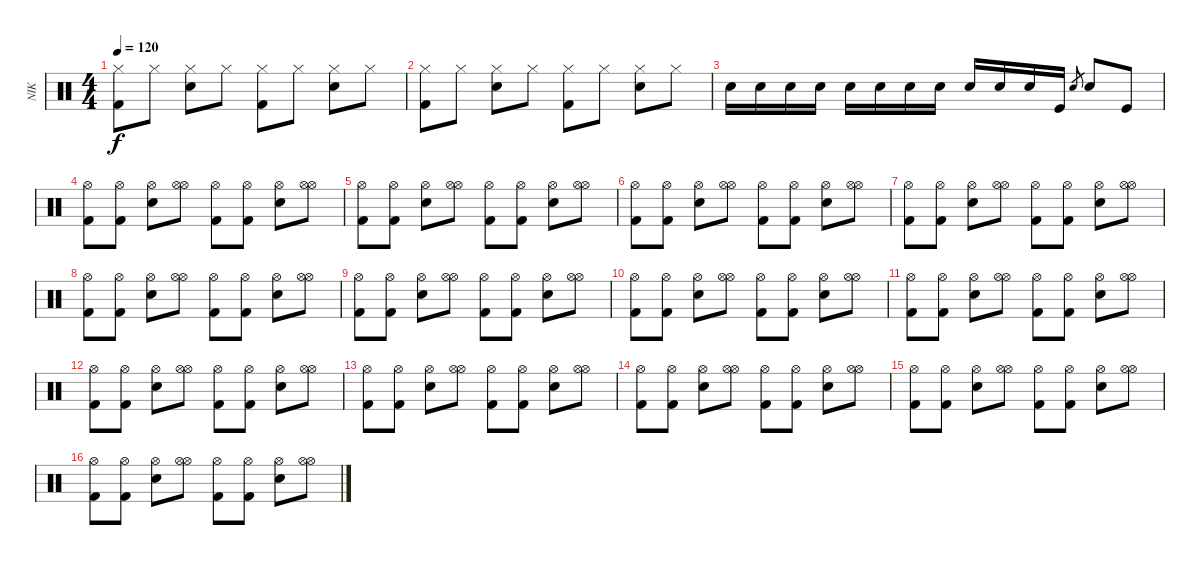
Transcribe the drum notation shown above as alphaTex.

\track ("NIK" "NIK") {instrument percussion}
\staff {score}
\articulation defaults
\ts (4 4)
\tempo 120
\clef neutral
\ks c
("Hi-Hat (closed)" "Kick (hit) 2").8{dy f} "Hi-Hat (closed)".8 ("Hi-Hat (closed)" "Electric Snare (hit)").8 "Hi-Hat (closed)".8 ("Hi-Hat (closed)" "Kick (hit) 2").8 "Hi-Hat (closed)".8 ("Hi-Hat (closed)" "Electric Snare (hit)").8 "Hi-Hat (closed)".8 |
("Hi-Hat (closed)" "Kick (hit) 2").8 "Hi-Hat (closed)".8 ("Hi-Hat (closed)" "Electric Snare (hit)").8 "Hi-Hat (closed)".8 ("Hi-Hat (closed)" "Kick (hit) 2").8 "Hi-Hat (closed)".8 ("Hi-Hat (closed)" "Electric Snare (hit)").8 "Hi-Hat (closed)".8 |
"Snare (hit) 2".16 "Snare (hit) 2".16 "Snare (hit) 2".16 "Snare (hit) 2".16 "Snare (hit) 2".16 "Snare (hit) 2".16 "Snare (hit) 2".16 "Snare (hit) 2".16 "Snare (hit) 2".16 "Snare (hit) 2".16 "Snare (hit) 2".16 "Kick (hit)".16 "Snare (hit) 2".8{gr} "Snare (hit) 2".8 "Kick (hit)".8 |
("Kick (hit) 2" "Hi-Hat (open)").8 ("Kick (hit) 2" "Hi-Hat (open)").8 ("Electric Snare (hit)" "Hi-Hat (open)").8 ("Hi-Hat (open)" "Hi-Hat (open)").8 ("Kick (hit) 2" "Hi-Hat (open)").8 ("Kick (hit) 2" "Hi-Hat (open)").8 ("Electric Snare (hit)" "Hi-Hat (open)").8 ("Hi-Hat (open)" "Hi-Hat (open)").8 |
("Kick (hit) 2" "Hi-Hat (open)").8 ("Kick (hit) 2" "Hi-Hat (open)").8 ("Electric Snare (hit)" "Hi-Hat (open)").8 ("Hi-Hat (open)" "Hi-Hat (open)").8 ("Kick (hit) 2" "Hi-Hat (open)").8 ("Kick (hit) 2" "Hi-Hat (open)").8 ("Electric Snare (hit)" "Hi-Hat (open)").8 ("Hi-Hat (open)" "Hi-Hat (open)").8 |
("Kick (hit) 2" "Hi-Hat (open)").8 ("Kick (hit) 2" "Hi-Hat (open)").8 ("Electric Snare (hit)" "Hi-Hat (open)").8 ("Hi-Hat (open)" "Hi-Hat (open)").8 ("Kick (hit) 2" "Hi-Hat (open)").8 ("Kick (hit) 2" "Hi-Hat (open)").8 ("Electric Snare (hit)" "Hi-Hat (open)").8 ("Hi-Hat (open)" "Hi-Hat (open)").8 |
("Kick (hit) 2" "Hi-Hat (open)").8 ("Kick (hit) 2" "Hi-Hat (open)").8 ("Electric Snare (hit)" "Hi-Hat (open)").8 ("Hi-Hat (open)" "Hi-Hat (open)").8 ("Kick (hit) 2" "Hi-Hat (open)").8 ("Kick (hit) 2" "Hi-Hat (open)").8 ("Electric Snare (hit)" "Hi-Hat (open)").8 ("Hi-Hat (open)" "Hi-Hat (open)").8 |
("Kick (hit) 2" "Hi-Hat (open)").8 ("Kick (hit) 2" "Hi-Hat (open)").8 ("Electric Snare (hit)" "Hi-Hat (open)").8 ("Hi-Hat (open)" "Hi-Hat (open)").8 ("Kick (hit) 2" "Hi-Hat (open)").8 ("Kick (hit) 2" "Hi-Hat (open)").8 ("Electric Snare (hit)" "Hi-Hat (open)").8 ("Hi-Hat (open)" "Hi-Hat (open)").8 |
("Kick (hit) 2" "Hi-Hat (open)").8 ("Kick (hit) 2" "Hi-Hat (open)").8 ("Electric Snare (hit)" "Hi-Hat (open)").8 ("Hi-Hat (open)" "Hi-Hat (open)").8 ("Kick (hit) 2" "Hi-Hat (open)").8 ("Kick (hit) 2" "Hi-Hat (open)").8 ("Electric Snare (hit)" "Hi-Hat (open)").8 ("Hi-Hat (open)" "Hi-Hat (open)").8 |
("Kick (hit) 2" "Hi-Hat (open)").8 ("Kick (hit) 2" "Hi-Hat (open)").8 ("Electric Snare (hit)" "Hi-Hat (open)").8 ("Hi-Hat (open)" "Hi-Hat (open)").8 ("Kick (hit) 2" "Hi-Hat (open)").8 ("Kick (hit) 2" "Hi-Hat (open)").8 ("Electric Snare (hit)" "Hi-Hat (open)").8 ("Hi-Hat (open)" "Hi-Hat (open)").8 |
("Kick (hit) 2" "Hi-Hat (open)").8 ("Kick (hit) 2" "Hi-Hat (open)").8 ("Electric Snare (hit)" "Hi-Hat (open)").8 ("Hi-Hat (open)" "Hi-Hat (open)").8 ("Kick (hit) 2" "Hi-Hat (open)").8 ("Kick (hit) 2" "Hi-Hat (open)").8 ("Electric Snare (hit)" "Hi-Hat (open)").8 ("Hi-Hat (open)" "Hi-Hat (open)").8 |
("Kick (hit) 2" "Hi-Hat (open)").8 ("Kick (hit) 2" "Hi-Hat (open)").8 ("Electric Snare (hit)" "Hi-Hat (open)").8 ("Hi-Hat (open)" "Hi-Hat (open)").8 ("Kick (hit) 2" "Hi-Hat (open)").8 ("Kick (hit) 2" "Hi-Hat (open)").8 ("Electric Snare (hit)" "Hi-Hat (open)").8 ("Hi-Hat (open)" "Hi-Hat (open)").8 |
("Kick (hit) 2" "Hi-Hat (open)").8 ("Kick (hit) 2" "Hi-Hat (open)").8 ("Electric Snare (hit)" "Hi-Hat (open)").8 ("Hi-Hat (open)" "Hi-Hat (open)").8 ("Kick (hit) 2" "Hi-Hat (open)").8 ("Kick (hit) 2" "Hi-Hat (open)").8 ("Electric Snare (hit)" "Hi-Hat (open)").8 ("Hi-Hat (open)" "Hi-Hat (open)").8 |
("Kick (hit) 2" "Hi-Hat (open)").8 ("Kick (hit) 2" "Hi-Hat (open)").8 ("Electric Snare (hit)" "Hi-Hat (open)").8 ("Hi-Hat (open)" "Hi-Hat (open)").8 ("Kick (hit) 2" "Hi-Hat (open)").8 ("Kick (hit) 2" "Hi-Hat (open)").8 ("Electric Snare (hit)" "Hi-Hat (open)").8 ("Hi-Hat (open)" "Hi-Hat (open)").8 |
("Kick (hit) 2" "Hi-Hat (open)").8 ("Kick (hit) 2" "Hi-Hat (open)").8 ("Electric Snare (hit)" "Hi-Hat (open)").8 ("Hi-Hat (open)" "Hi-Hat (open)").8 ("Kick (hit) 2" "Hi-Hat (open)").8 ("Kick (hit) 2" "Hi-Hat (open)").8 ("Electric Snare (hit)" "Hi-Hat (open)").8 ("Hi-Hat (open)" "Hi-Hat (open)").8 |
("Kick (hit) 2" "Hi-Hat (open)").8 ("Kick (hit) 2" "Hi-Hat (open)").8 ("Electric Snare (hit)" "Hi-Hat (open)").8 ("Hi-Hat (open)" "Hi-Hat (open)").8 ("Kick (hit) 2" "Hi-Hat (open)").8 ("Kick (hit) 2" "Hi-Hat (open)").8 ("Electric Snare (hit)" "Hi-Hat (open)").8 ("Hi-Hat (open)" "Hi-Hat (open)").8
